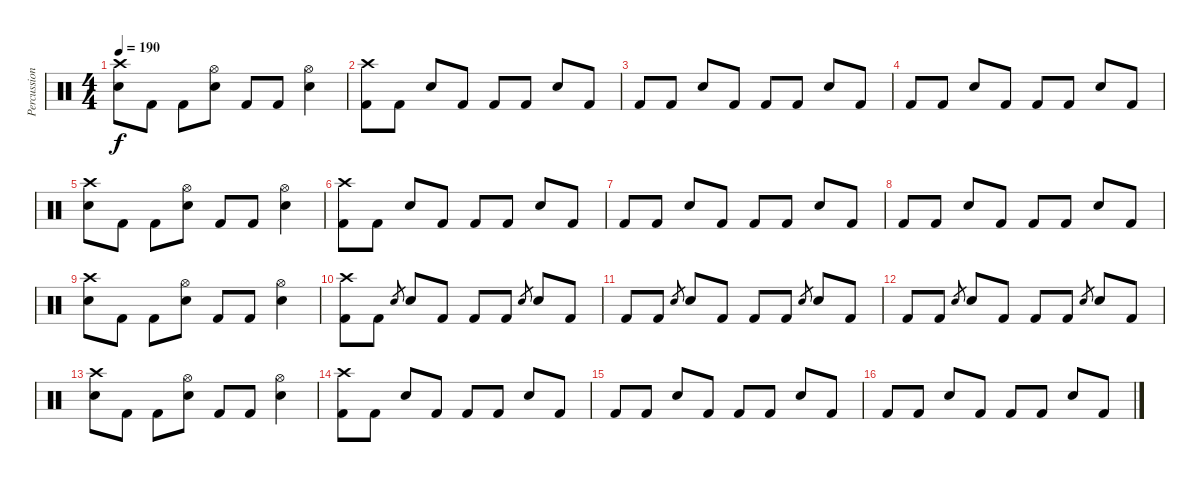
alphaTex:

\track ("Percussion" "Percussion") {instrument percussion}
\staff {score}
\articulation defaults
\ts (4 4)
\tempo 190
\clef neutral
\ks c
("Crash high (hit)" "Snare (hit) 2").8{dy f} "Kick (hit) 2".8 "Kick (hit) 2".8 ("Hi-Hat (open)" "Snare (hit) 2").8 "Kick (hit) 2".8 "Kick (hit) 2".8 ("Hi-Hat (open)" "Snare (hit) 2").4 |
("Crash high (hit)" "Kick (hit) 2").8 "Kick (hit) 2".8 "Snare (hit) 2".8 "Kick (hit) 2".8 "Kick (hit) 2".8 "Kick (hit) 2".8 "Snare (hit) 2".8 "Kick (hit) 2".8 |
"Kick (hit) 2".8 "Kick (hit) 2".8 "Snare (hit) 2".8 "Kick (hit) 2".8 "Kick (hit) 2".8 "Kick (hit) 2".8 "Snare (hit) 2".8 "Kick (hit) 2".8 |
"Kick (hit) 2".8 "Kick (hit) 2".8 "Snare (hit) 2".8 "Kick (hit) 2".8 "Kick (hit) 2".8 "Kick (hit) 2".8 "Snare (hit) 2".8 "Kick (hit) 2".8 |
("Crash high (hit)" "Snare (hit) 2").8 "Kick (hit) 2".8 "Kick (hit) 2".8 ("Hi-Hat (open)" "Snare (hit) 2").8 "Kick (hit) 2".8 "Kick (hit) 2".8 ("Hi-Hat (open)" "Snare (hit) 2").4 |
("Crash high (hit)" "Kick (hit) 2").8 "Kick (hit) 2".8 "Snare (hit) 2".8 "Kick (hit) 2".8 "Kick (hit) 2".8 "Kick (hit) 2".8 "Snare (hit) 2".8 "Kick (hit) 2".8 |
"Kick (hit) 2".8 "Kick (hit) 2".8 "Snare (hit) 2".8 "Kick (hit) 2".8 "Kick (hit) 2".8 "Kick (hit) 2".8 "Snare (hit) 2".8 "Kick (hit) 2".8 |
"Kick (hit) 2".8 "Kick (hit) 2".8 "Snare (hit) 2".8 "Kick (hit) 2".8 "Kick (hit) 2".8 "Kick (hit) 2".8 "Snare (hit) 2".8 "Kick (hit) 2".8 |
("Crash high (hit)" "Snare (hit) 2").8 "Kick (hit) 2".8 "Kick (hit) 2".8 ("Hi-Hat (open)" "Snare (hit) 2").8 "Kick (hit) 2".8 "Kick (hit) 2".8 ("Hi-Hat (open)" "Snare (hit) 2").4 |
("Crash high (hit)" "Kick (hit) 2").8 "Kick (hit) 2".8 "Snare (hit) 2".8{gr} "Snare (hit) 2".8 "Kick (hit) 2".8 "Kick (hit) 2".8 "Kick (hit) 2".8 "Snare (hit) 2".8{gr} "Snare (hit) 2".8 "Kick (hit) 2".8 |
"Kick (hit) 2".8 "Kick (hit) 2".8 "Snare (hit) 2".8{gr} "Snare (hit) 2".8 "Kick (hit) 2".8 "Kick (hit) 2".8 "Kick (hit) 2".8 "Snare (hit) 2".8{gr} "Snare (hit) 2".8 "Kick (hit) 2".8 |
"Kick (hit) 2".8 "Kick (hit) 2".8 "Snare (hit) 2".8{gr} "Snare (hit) 2".8 "Kick (hit) 2".8 "Kick (hit) 2".8 "Kick (hit) 2".8 "Snare (hit) 2".8{gr} "Snare (hit) 2".8 "Kick (hit) 2".8 |
("Crash high (hit)" "Snare (hit) 2").8 "Kick (hit) 2".8 "Kick (hit) 2".8 ("Hi-Hat (open)" "Snare (hit) 2").8 "Kick (hit) 2".8 "Kick (hit) 2".8 ("Hi-Hat (open)" "Snare (hit) 2").4 |
("Crash high (hit)" "Kick (hit) 2").8 "Kick (hit) 2".8 "Snare (hit) 2".8 "Kick (hit) 2".8 "Kick (hit) 2".8 "Kick (hit) 2".8 "Snare (hit) 2".8 "Kick (hit) 2".8 |
"Kick (hit) 2".8 "Kick (hit) 2".8 "Snare (hit) 2".8 "Kick (hit) 2".8 "Kick (hit) 2".8 "Kick (hit) 2".8 "Snare (hit) 2".8 "Kick (hit) 2".8 |
"Kick (hit) 2".8 "Kick (hit) 2".8 "Snare (hit) 2".8 "Kick (hit) 2".8 "Kick (hit) 2".8 "Kick (hit) 2".8 "Snare (hit) 2".8 "Kick (hit) 2".8
